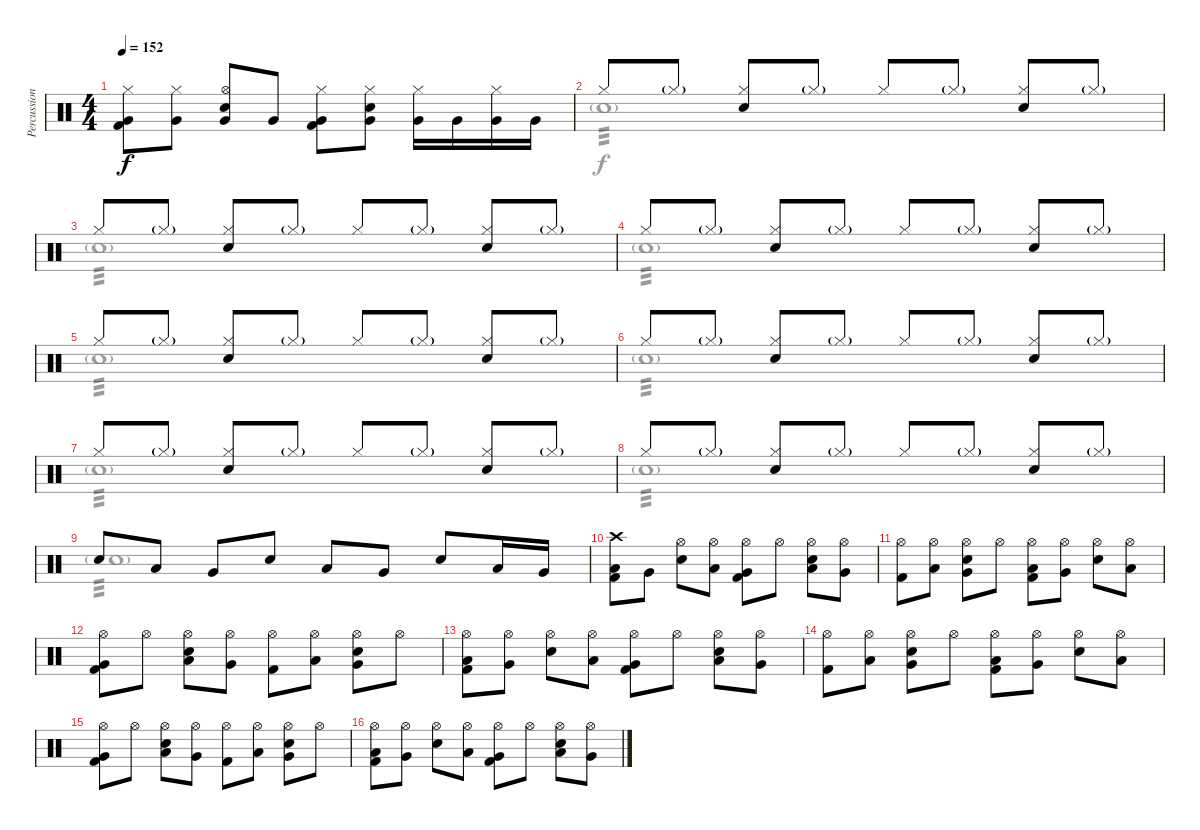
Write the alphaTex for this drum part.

\track ("Percussion" "Percussion") {instrument percussion}
\staff {score}
\articulation defaults
\voice
\ts (4 4)
\tempo 152
\clef neutral
\ks c
("Hi-Hat (closed)" "Very Low Tom (hit)" "Kick (hit) 2").8{dy f} ("Hi-Hat (closed)" "Very Low Tom (hit)").8 ("Hi-Hat (open)" "Very Low Tom (hit)" "Snare (hit) 2").8 "Very Low Tom (hit)".8 ("Hi-Hat (closed)" "Very Low Tom (hit)" "Kick (hit) 2").8 ("Hi-Hat (closed)" "Very Low Tom (hit)" "Snare (hit) 2").8 ("Hi-Hat (closed)" "Very Low Tom (hit)").16 "Very Low Tom (hit)".16 ("Hi-Hat (closed)" "Very Low Tom (hit)").16 "Very Low Tom (hit)".16 |
"Hi-Hat (closed)".8 "Hi-Hat (closed)"{g}.8 ("Hi-Hat (closed)" "Snare (hit) 2").8 "Hi-Hat (closed)"{g}.8 "Hi-Hat (closed)".8 "Hi-Hat (closed)"{g}.8 ("Hi-Hat (closed)" "Snare (hit) 2").8 "Hi-Hat (closed)"{g}.8 |
"Hi-Hat (closed)".8 "Hi-Hat (closed)"{g}.8 ("Hi-Hat (closed)" "Snare (hit) 2").8 "Hi-Hat (closed)"{g}.8 "Hi-Hat (closed)".8 "Hi-Hat (closed)"{g}.8 ("Hi-Hat (closed)" "Snare (hit) 2").8 "Hi-Hat (closed)"{g}.8 |
"Hi-Hat (closed)".8 "Hi-Hat (closed)"{g}.8 ("Hi-Hat (closed)" "Snare (hit) 2").8 "Hi-Hat (closed)"{g}.8 "Hi-Hat (closed)".8 "Hi-Hat (closed)"{g}.8 ("Hi-Hat (closed)" "Snare (hit) 2").8 "Hi-Hat (closed)"{g}.8 |
"Hi-Hat (closed)".8 "Hi-Hat (closed)"{g}.8 ("Hi-Hat (closed)" "Snare (hit) 2").8 "Hi-Hat (closed)"{g}.8 "Hi-Hat (closed)".8 "Hi-Hat (closed)"{g}.8 ("Hi-Hat (closed)" "Snare (hit) 2").8 "Hi-Hat (closed)"{g}.8 |
"Hi-Hat (closed)".8 "Hi-Hat (closed)"{g}.8 ("Hi-Hat (closed)" "Snare (hit) 2").8 "Hi-Hat (closed)"{g}.8 "Hi-Hat (closed)".8 "Hi-Hat (closed)"{g}.8 ("Hi-Hat (closed)" "Snare (hit) 2").8 "Hi-Hat (closed)"{g}.8 |
"Hi-Hat (closed)".8 "Hi-Hat (closed)"{g}.8 ("Hi-Hat (closed)" "Snare (hit) 2").8 "Hi-Hat (closed)"{g}.8 "Hi-Hat (closed)".8 "Hi-Hat (closed)"{g}.8 ("Hi-Hat (closed)" "Snare (hit) 2").8 "Hi-Hat (closed)"{g}.8 |
"Hi-Hat (closed)".8 "Hi-Hat (closed)"{g}.8 ("Hi-Hat (closed)" "Snare (hit) 2").8 "Hi-Hat (closed)"{g}.8 "Hi-Hat (closed)".8 "Hi-Hat (closed)"{g}.8 ("Hi-Hat (closed)" "Snare (hit) 2").8 "Hi-Hat (closed)"{g}.8 |
"Snare (hit) 2".8 "Low Tom (hit)".8 "Very Low Tom (hit)".8 "Snare (hit) 2".8 "Low Tom (hit)".8 "Very Low Tom (hit)".8 "Snare (hit) 2".8 "Low Tom (hit)".16 "Very Low Tom (hit)".16 |
("Crash high (hit)" "Low Tom (hit)" "Kick (hit) 2").8 "Very Low Tom (hit)".8 ("Hi-Hat (open)" "Snare (hit) 2").8 ("Hi-Hat (open)" "Low Tom (hit)").8 ("Hi-Hat (open)" "Very Low Tom (hit)" "Kick (hit) 2").8 "Hi-Hat (open)".8 ("Hi-Hat (open)" "Low Tom (hit)" "Snare (hit) 2").8 ("Hi-Hat (open)" "Very Low Tom (hit)").8 |
("Hi-Hat (open)" "Kick (hit) 2").8 ("Hi-Hat (open)" "Low Tom (hit)").8 ("Hi-Hat (open)" "Very Low Tom (hit)" "Snare (hit) 2").8 "Hi-Hat (open)".8 ("Hi-Hat (open)" "Low Tom (hit)" "Kick (hit) 2").8 ("Hi-Hat (open)" "Very Low Tom (hit)").8 ("Hi-Hat (open)" "Snare (hit) 2").8 ("Hi-Hat (open)" "Low Tom (hit)").8 |
("Hi-Hat (open)" "Very Low Tom (hit)" "Kick (hit) 2").8 "Hi-Hat (open)".8 ("Hi-Hat (open)" "Low Tom (hit)" "Snare (hit) 2").8 ("Hi-Hat (open)" "Very Low Tom (hit)").8 ("Hi-Hat (open)" "Kick (hit) 2").8 ("Hi-Hat (open)" "Low Tom (hit)").8 ("Hi-Hat (open)" "Very Low Tom (hit)" "Snare (hit) 2").8 "Hi-Hat (open)".8 |
("Hi-Hat (open)" "Low Tom (hit)" "Kick (hit) 2").8 ("Hi-Hat (open)" "Very Low Tom (hit)").8 ("Hi-Hat (open)" "Snare (hit) 2").8 ("Hi-Hat (open)" "Low Tom (hit)").8 ("Hi-Hat (open)" "Very Low Tom (hit)" "Kick (hit) 2").8 "Hi-Hat (open)".8 ("Hi-Hat (open)" "Low Tom (hit)" "Snare (hit) 2").8 ("Hi-Hat (open)" "Very Low Tom (hit)").8 |
("Hi-Hat (open)" "Kick (hit) 2").8 ("Hi-Hat (open)" "Low Tom (hit)").8 ("Hi-Hat (open)" "Very Low Tom (hit)" "Snare (hit) 2").8 "Hi-Hat (open)".8 ("Hi-Hat (open)" "Low Tom (hit)" "Kick (hit) 2").8 ("Hi-Hat (open)" "Very Low Tom (hit)").8 ("Hi-Hat (open)" "Snare (hit) 2").8 ("Hi-Hat (open)" "Low Tom (hit)").8 |
("Hi-Hat (open)" "Very Low Tom (hit)" "Kick (hit) 2").8 "Hi-Hat (open)".8 ("Hi-Hat (open)" "Low Tom (hit)" "Snare (hit) 2").8 ("Hi-Hat (open)" "Very Low Tom (hit)").8 ("Hi-Hat (open)" "Kick (hit) 2").8 ("Hi-Hat (open)" "Low Tom (hit)").8 ("Hi-Hat (open)" "Very Low Tom (hit)" "Snare (hit) 2").8 "Hi-Hat (open)".8 |
("Hi-Hat (open)" "Low Tom (hit)" "Kick (hit) 2").8 ("Hi-Hat (open)" "Very Low Tom (hit)").8 ("Hi-Hat (open)" "Snare (hit) 2").8 ("Hi-Hat (open)" "Low Tom (hit)").8 ("Hi-Hat (open)" "Very Low Tom (hit)" "Kick (hit) 2").8 "Hi-Hat (open)".8 ("Hi-Hat (open)" "Low Tom (hit)" "Snare (hit) 2").8 ("Hi-Hat (open)" "Very Low Tom (hit)").8
\voice
\clef neutral
\ottava regular
\simile none
\ks c
|
"Electric Snare (hit)"{g}.1{tp 3} |
"Electric Snare (hit)"{g}.1{tp 3} |
"Electric Snare (hit)"{g}.1{tp 3} |
"Electric Snare (hit)"{g}.1{tp 3} |
"Electric Snare (hit)"{g}.1{tp 3} |
"Electric Snare (hit)"{g}.1{tp 3} |
"Electric Snare (hit)"{g}.1{tp 3} |
"Electric Snare (hit)"{g}.1{tp 3} |
|
|
|
|
|
|
